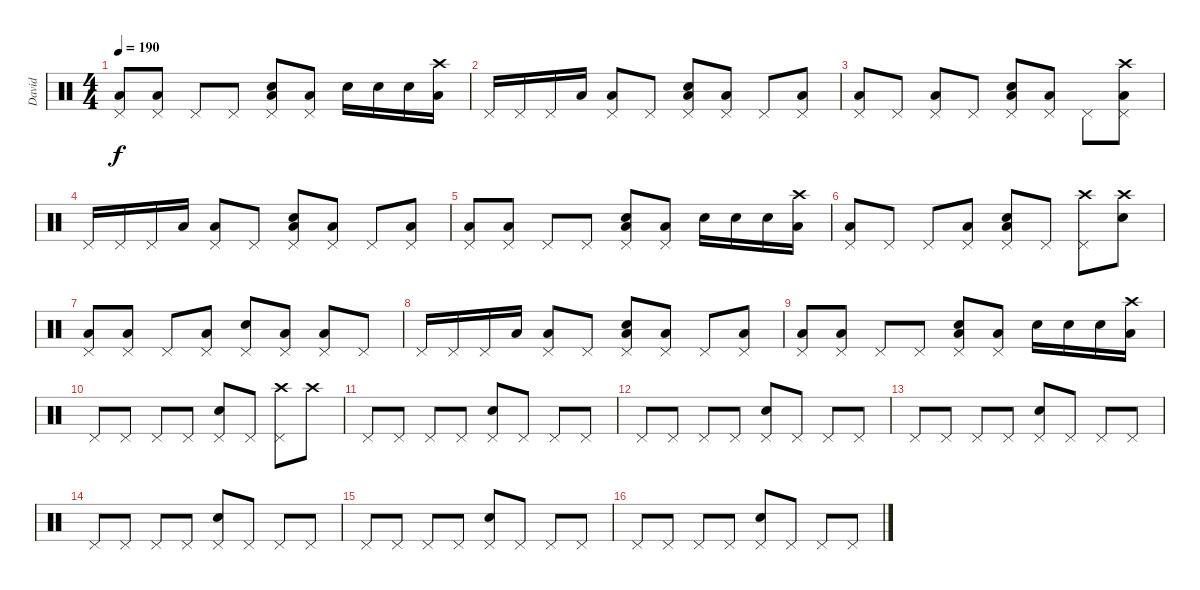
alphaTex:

\track ("David" "David") {instrument percussion}
\staff {score}
\articulation defaults
\ts (4 4)
\tempo 190
\clef neutral
\ks c
("Pedal Hi-Hat (hit)" "Low Tom (hit)").8{dy f} ("Pedal Hi-Hat (hit)" "Low Tom (hit)").8 "Pedal Hi-Hat (hit)".8 "Pedal Hi-Hat (hit)".8 ("Pedal Hi-Hat (hit)" "Electric Snare (hit)" "Low Tom (hit)").8 ("Pedal Hi-Hat (hit)" "Low Tom (hit)").8 "Electric Snare (hit)".16 "Electric Snare (hit)".16 "Electric Snare (hit)".16 ("Crash high (hit)" "Low Tom (hit)").16 |
"Pedal Hi-Hat (hit)".16 "Pedal Hi-Hat (hit)".16 "Pedal Hi-Hat (hit)".16 "Low Tom (hit)".16 ("Pedal Hi-Hat (hit)" "Low Tom (hit)").8 "Pedal Hi-Hat (hit)".8 ("Pedal Hi-Hat (hit)" "Electric Snare (hit)" "Low Tom (hit)").8 ("Pedal Hi-Hat (hit)" "Low Tom (hit)").8 "Pedal Hi-Hat (hit)".8 ("Pedal Hi-Hat (hit)" "Low Tom (hit)").8 |
("Pedal Hi-Hat (hit)" "Low Tom (hit)").8 "Pedal Hi-Hat (hit)".8 ("Pedal Hi-Hat (hit)" "Low Tom (hit)").8 "Pedal Hi-Hat (hit)".8 ("Pedal Hi-Hat (hit)" "Electric Snare (hit)" "Low Tom (hit)").8 ("Pedal Hi-Hat (hit)" "Low Tom (hit)").8 "Pedal Hi-Hat (hit)".8 ("Crash high (hit)" "Pedal Hi-Hat (hit)" "Low Tom (hit)").8 |
"Pedal Hi-Hat (hit)".16 "Pedal Hi-Hat (hit)".16 "Pedal Hi-Hat (hit)".16 "Low Tom (hit)".16 ("Pedal Hi-Hat (hit)" "Low Tom (hit)").8 "Pedal Hi-Hat (hit)".8 ("Pedal Hi-Hat (hit)" "Electric Snare (hit)" "Low Tom (hit)").8 ("Pedal Hi-Hat (hit)" "Low Tom (hit)").8 "Pedal Hi-Hat (hit)".8 ("Pedal Hi-Hat (hit)" "Low Tom (hit)").8 |
("Pedal Hi-Hat (hit)" "Low Tom (hit)").8 ("Pedal Hi-Hat (hit)" "Low Tom (hit)").8 "Pedal Hi-Hat (hit)".8 "Pedal Hi-Hat (hit)".8 ("Pedal Hi-Hat (hit)" "Electric Snare (hit)" "Low Tom (hit)").8 ("Pedal Hi-Hat (hit)" "Low Tom (hit)").8 "Electric Snare (hit)".16 "Electric Snare (hit)".16 "Electric Snare (hit)".16 ("Crash high (hit)" "Low Tom (hit)").16 |
("Pedal Hi-Hat (hit)" "Low Tom (hit)").8 "Pedal Hi-Hat (hit)".8 "Pedal Hi-Hat (hit)".8 ("Pedal Hi-Hat (hit)" "Low Tom (hit)").8 ("Pedal Hi-Hat (hit)" "Electric Snare (hit)" "Low Tom (hit)").8 "Pedal Hi-Hat (hit)".8 ("Crash high (hit)" "Pedal Hi-Hat (hit)").8 ("Crash high (hit)" "Electric Snare (hit)").8 |
("Pedal Hi-Hat (hit)" "Low Tom (hit)").8 ("Pedal Hi-Hat (hit)" "Low Tom (hit)").8 "Pedal Hi-Hat (hit)".8 ("Pedal Hi-Hat (hit)" "Low Tom (hit)").8 ("Pedal Hi-Hat (hit)" "Electric Snare (hit)").8 ("Pedal Hi-Hat (hit)" "Low Tom (hit)").8 ("Pedal Hi-Hat (hit)" "Low Tom (hit)").8 "Pedal Hi-Hat (hit)".8 |
"Pedal Hi-Hat (hit)".16 "Pedal Hi-Hat (hit)".16 "Pedal Hi-Hat (hit)".16 "Low Tom (hit)".16 ("Pedal Hi-Hat (hit)" "Low Tom (hit)").8 "Pedal Hi-Hat (hit)".8 ("Pedal Hi-Hat (hit)" "Electric Snare (hit)" "Low Tom (hit)").8 ("Pedal Hi-Hat (hit)" "Low Tom (hit)").8 "Pedal Hi-Hat (hit)".8 ("Pedal Hi-Hat (hit)" "Low Tom (hit)").8 |
("Pedal Hi-Hat (hit)" "Low Tom (hit)").8 ("Pedal Hi-Hat (hit)" "Low Tom (hit)").8 "Pedal Hi-Hat (hit)".8 "Pedal Hi-Hat (hit)".8 ("Pedal Hi-Hat (hit)" "Electric Snare (hit)" "Low Tom (hit)").8 ("Pedal Hi-Hat (hit)" "Low Tom (hit)").8 "Electric Snare (hit)".16 "Electric Snare (hit)".16 "Electric Snare (hit)".16 ("Crash high (hit)" "Low Tom (hit)").16 |
"Pedal Hi-Hat (hit)".8 "Pedal Hi-Hat (hit)".8 "Pedal Hi-Hat (hit)".8 "Pedal Hi-Hat (hit)".8 ("Pedal Hi-Hat (hit)" "Electric Snare (hit)").8 "Pedal Hi-Hat (hit)".8 ("Crash high (hit)" "Pedal Hi-Hat (hit)").8 "Crash high (hit)".8 |
"Pedal Hi-Hat (hit)".8 "Pedal Hi-Hat (hit)".8 "Pedal Hi-Hat (hit)".8 "Pedal Hi-Hat (hit)".8 ("Pedal Hi-Hat (hit)" "Electric Snare (hit)").8 "Pedal Hi-Hat (hit)".8 "Pedal Hi-Hat (hit)".8 "Pedal Hi-Hat (hit)".8 |
"Pedal Hi-Hat (hit)".8 "Pedal Hi-Hat (hit)".8 "Pedal Hi-Hat (hit)".8 "Pedal Hi-Hat (hit)".8 ("Pedal Hi-Hat (hit)" "Electric Snare (hit)").8 "Pedal Hi-Hat (hit)".8 "Pedal Hi-Hat (hit)".8 "Pedal Hi-Hat (hit)".8 |
"Pedal Hi-Hat (hit)".8 "Pedal Hi-Hat (hit)".8 "Pedal Hi-Hat (hit)".8 "Pedal Hi-Hat (hit)".8 ("Pedal Hi-Hat (hit)" "Electric Snare (hit)").8 "Pedal Hi-Hat (hit)".8 "Pedal Hi-Hat (hit)".8 "Pedal Hi-Hat (hit)".8 |
"Pedal Hi-Hat (hit)".8 "Pedal Hi-Hat (hit)".8 "Pedal Hi-Hat (hit)".8 "Pedal Hi-Hat (hit)".8 ("Pedal Hi-Hat (hit)" "Electric Snare (hit)").8 "Pedal Hi-Hat (hit)".8 "Pedal Hi-Hat (hit)".8 "Pedal Hi-Hat (hit)".8 |
"Pedal Hi-Hat (hit)".8 "Pedal Hi-Hat (hit)".8 "Pedal Hi-Hat (hit)".8 "Pedal Hi-Hat (hit)".8 ("Pedal Hi-Hat (hit)" "Electric Snare (hit)").8 "Pedal Hi-Hat (hit)".8 "Pedal Hi-Hat (hit)".8 "Pedal Hi-Hat (hit)".8 |
"Pedal Hi-Hat (hit)".8 "Pedal Hi-Hat (hit)".8 "Pedal Hi-Hat (hit)".8 "Pedal Hi-Hat (hit)".8 ("Pedal Hi-Hat (hit)" "Electric Snare (hit)").8 "Pedal Hi-Hat (hit)".8 "Pedal Hi-Hat (hit)".8 "Pedal Hi-Hat (hit)".8
